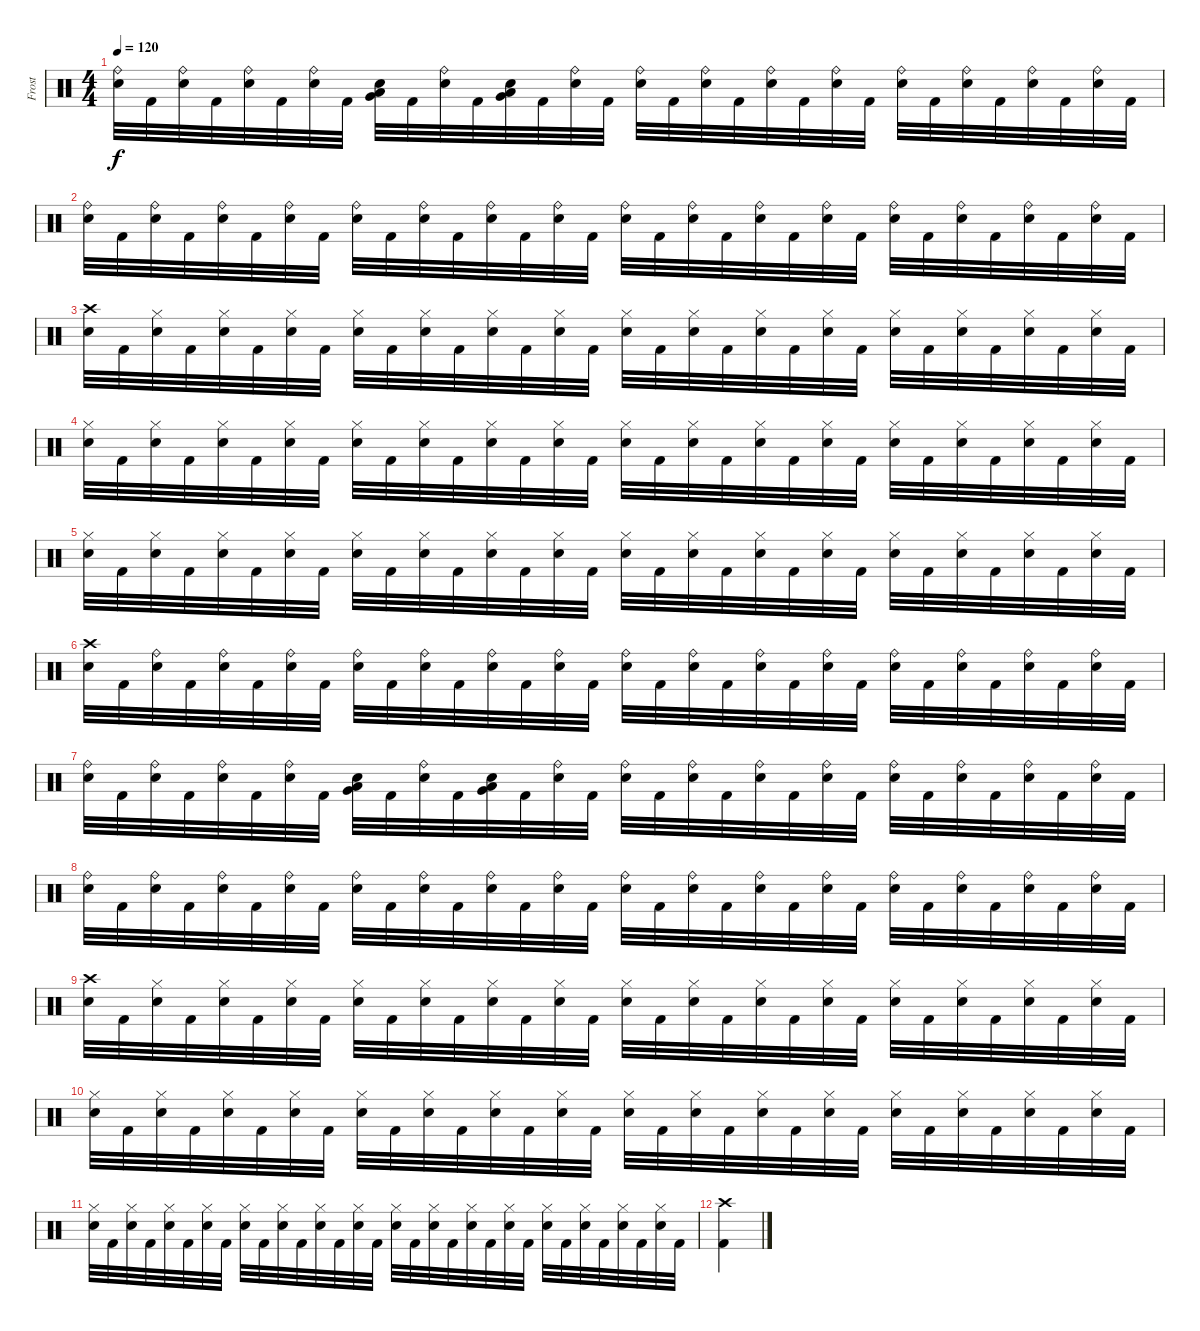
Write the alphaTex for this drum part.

\track ("Frost" "Frost") {instrument percussion}
\staff {score}
\articulation defaults
\ts (4 4)
\tempo 120
\clef neutral
\ks c
("Ride (bell)" "Snare (hit) 2").32{dy f} "Kick (hit) 2".32 ("Ride (bell)" "Snare (hit) 2").32 "Kick (hit) 2".32 ("Ride (bell)" "Snare (hit) 2").32 "Kick (hit) 2".32 ("Ride (bell)" "Snare (hit) 2").32 "Kick (hit) 2".32 ("Low Tom (hit)" "Very Low Tom (hit)" "Snare (hit) 2").32 "Kick (hit) 2".32 ("Ride (bell)" "Snare (hit) 2").32 "Kick (hit) 2".32 ("Low Tom (hit)" "Very Low Tom (hit)" "Snare (hit) 2").32 "Kick (hit) 2".32 ("Ride (bell)" "Snare (hit) 2").32 "Kick (hit) 2".32 ("Ride (bell)" "Snare (hit) 2").32 "Kick (hit) 2".32 ("Ride (bell)" "Snare (hit) 2").32 "Kick (hit) 2".32 ("Ride (bell)" "Snare (hit) 2").32 "Kick (hit) 2".32 ("Ride (bell)" "Snare (hit) 2").32 "Kick (hit) 2".32 ("Ride (bell)" "Snare (hit) 2").32 "Kick (hit) 2".32 ("Ride (bell)" "Snare (hit) 2").32 "Kick (hit) 2".32 ("Ride (bell)" "Snare (hit) 2").32 "Kick (hit) 2".32 ("Ride (bell)" "Snare (hit) 2").32 "Kick (hit) 2".32 |
("Ride (bell)" "Snare (hit) 2").32 "Kick (hit) 2".32 ("Ride (bell)" "Snare (hit) 2").32 "Kick (hit) 2".32 ("Ride (bell)" "Snare (hit) 2").32 "Kick (hit) 2".32 ("Ride (bell)" "Snare (hit) 2").32 "Kick (hit) 2".32 ("Ride (bell)" "Snare (hit) 2").32 "Kick (hit) 2".32 ("Ride (bell)" "Snare (hit) 2").32 "Kick (hit) 2".32 ("Ride (bell)" "Snare (hit) 2").32 "Kick (hit) 2".32 ("Ride (bell)" "Snare (hit) 2").32 "Kick (hit) 2".32 ("Ride (bell)" "Snare (hit) 2").32 "Kick (hit) 2".32 ("Ride (bell)" "Snare (hit) 2").32 "Kick (hit) 2".32 ("Ride (bell)" "Snare (hit) 2").32 "Kick (hit) 2".32 ("Ride (bell)" "Snare (hit) 2").32 "Kick (hit) 2".32 ("Ride (bell)" "Snare (hit) 2").32 "Kick (hit) 2".32 ("Ride (bell)" "Snare (hit) 2").32 "Kick (hit) 2".32 ("Ride (bell)" "Snare (hit) 2").32 "Kick (hit) 2".32 ("Ride (bell)" "Snare (hit) 2").32 "Kick (hit) 2".32 |
("Crash high (hit)" "Snare (hit) 2").32 "Kick (hit) 2".32 ("Hi-Hat (closed)" "Snare (hit) 2").32 "Kick (hit) 2".32 ("Hi-Hat (closed)" "Snare (hit) 2").32 "Kick (hit) 2".32 ("Hi-Hat (closed)" "Snare (hit) 2").32 "Kick (hit) 2".32 ("Hi-Hat (closed)" "Snare (hit) 2").32 "Kick (hit) 2".32 ("Hi-Hat (closed)" "Snare (hit) 2").32 "Kick (hit) 2".32 ("Hi-Hat (closed)" "Snare (hit) 2").32 "Kick (hit) 2".32 ("Hi-Hat (closed)" "Snare (hit) 2").32 "Kick (hit) 2".32 ("Hi-Hat (closed)" "Snare (hit) 2").32 "Kick (hit) 2".32 ("Hi-Hat (closed)" "Snare (hit) 2").32 "Kick (hit) 2".32 ("Hi-Hat (closed)" "Snare (hit) 2").32 "Kick (hit) 2".32 ("Hi-Hat (closed)" "Snare (hit) 2").32 "Kick (hit) 2".32 ("Hi-Hat (closed)" "Snare (hit) 2").32 "Kick (hit) 2".32 ("Hi-Hat (closed)" "Snare (hit) 2").32 "Kick (hit) 2".32 ("Hi-Hat (closed)" "Snare (hit) 2").32 "Kick (hit) 2".32 ("Hi-Hat (closed)" "Snare (hit) 2").32 "Kick (hit) 2".32 |
("Hi-Hat (closed)" "Snare (hit) 2").32 "Kick (hit) 2".32 ("Hi-Hat (closed)" "Snare (hit) 2").32 "Kick (hit) 2".32 ("Hi-Hat (closed)" "Snare (hit) 2").32 "Kick (hit) 2".32 ("Hi-Hat (closed)" "Snare (hit) 2").32 "Kick (hit) 2".32 ("Hi-Hat (closed)" "Snare (hit) 2").32 "Kick (hit) 2".32 ("Hi-Hat (closed)" "Snare (hit) 2").32 "Kick (hit) 2".32 ("Hi-Hat (closed)" "Snare (hit) 2").32 "Kick (hit) 2".32 ("Hi-Hat (closed)" "Snare (hit) 2").32 "Kick (hit) 2".32 ("Hi-Hat (closed)" "Snare (hit) 2").32 "Kick (hit) 2".32 ("Hi-Hat (closed)" "Snare (hit) 2").32 "Kick (hit) 2".32 ("Hi-Hat (closed)" "Snare (hit) 2").32 "Kick (hit) 2".32 ("Hi-Hat (closed)" "Snare (hit) 2").32 "Kick (hit) 2".32 ("Hi-Hat (closed)" "Snare (hit) 2").32 "Kick (hit) 2".32 ("Hi-Hat (closed)" "Snare (hit) 2").32 "Kick (hit) 2".32 ("Hi-Hat (closed)" "Snare (hit) 2").32 "Kick (hit) 2".32 ("Hi-Hat (closed)" "Snare (hit) 2").32 "Kick (hit) 2".32 |
("Hi-Hat (closed)" "Snare (hit) 2").32 "Kick (hit) 2".32 ("Hi-Hat (closed)" "Snare (hit) 2").32 "Kick (hit) 2".32 ("Hi-Hat (closed)" "Snare (hit) 2").32 "Kick (hit) 2".32 ("Hi-Hat (closed)" "Snare (hit) 2").32 "Kick (hit) 2".32 ("Hi-Hat (closed)" "Snare (hit) 2").32 "Kick (hit) 2".32 ("Hi-Hat (closed)" "Snare (hit) 2").32 "Kick (hit) 2".32 ("Hi-Hat (closed)" "Snare (hit) 2").32 "Kick (hit) 2".32 ("Hi-Hat (closed)" "Snare (hit) 2").32 "Kick (hit) 2".32 ("Hi-Hat (closed)" "Snare (hit) 2").32 "Kick (hit) 2".32 ("Hi-Hat (closed)" "Snare (hit) 2").32 "Kick (hit) 2".32 ("Hi-Hat (closed)" "Snare (hit) 2").32 "Kick (hit) 2".32 ("Hi-Hat (closed)" "Snare (hit) 2").32 "Kick (hit) 2".32 ("Hi-Hat (closed)" "Snare (hit) 2").32 "Kick (hit) 2".32 ("Hi-Hat (closed)" "Snare (hit) 2").32 "Kick (hit) 2".32 ("Hi-Hat (closed)" "Snare (hit) 2").32 "Kick (hit) 2".32 ("Hi-Hat (closed)" "Snare (hit) 2").32 "Kick (hit) 2".32 |
("Crash high (hit)" "Snare (hit) 2").32 "Kick (hit) 2".32 ("Ride (bell)" "Snare (hit) 2").32 "Kick (hit) 2".32 ("Ride (bell)" "Snare (hit) 2").32 "Kick (hit) 2".32 ("Ride (bell)" "Snare (hit) 2").32 "Kick (hit) 2".32 ("Ride (bell)" "Snare (hit) 2").32 "Kick (hit) 2".32 ("Ride (bell)" "Snare (hit) 2").32 "Kick (hit) 2".32 ("Ride (bell)" "Snare (hit) 2").32 "Kick (hit) 2".32 ("Ride (bell)" "Snare (hit) 2").32 "Kick (hit) 2".32 ("Ride (bell)" "Snare (hit) 2").32 "Kick (hit) 2".32 ("Ride (bell)" "Snare (hit) 2").32 "Kick (hit) 2".32 ("Ride (bell)" "Snare (hit) 2").32 "Kick (hit) 2".32 ("Ride (bell)" "Snare (hit) 2").32 "Kick (hit) 2".32 ("Ride (bell)" "Snare (hit) 2").32 "Kick (hit) 2".32 ("Ride (bell)" "Snare (hit) 2").32 "Kick (hit) 2".32 ("Ride (bell)" "Snare (hit) 2").32 "Kick (hit) 2".32 ("Ride (bell)" "Snare (hit) 2").32 "Kick (hit) 2".32 |
("Ride (bell)" "Snare (hit) 2").32 "Kick (hit) 2".32 ("Ride (bell)" "Snare (hit) 2").32 "Kick (hit) 2".32 ("Ride (bell)" "Snare (hit) 2").32 "Kick (hit) 2".32 ("Ride (bell)" "Snare (hit) 2").32 "Kick (hit) 2".32 ("Low Tom (hit)" "Very Low Tom (hit)" "Snare (hit) 2").32 "Kick (hit) 2".32 ("Ride (bell)" "Snare (hit) 2").32 "Kick (hit) 2".32 ("Low Tom (hit)" "Very Low Tom (hit)" "Snare (hit) 2").32 "Kick (hit) 2".32 ("Ride (bell)" "Snare (hit) 2").32 "Kick (hit) 2".32 ("Ride (bell)" "Snare (hit) 2").32 "Kick (hit) 2".32 ("Ride (bell)" "Snare (hit) 2").32 "Kick (hit) 2".32 ("Ride (bell)" "Snare (hit) 2").32 "Kick (hit) 2".32 ("Ride (bell)" "Snare (hit) 2").32 "Kick (hit) 2".32 ("Ride (bell)" "Snare (hit) 2").32 "Kick (hit) 2".32 ("Ride (bell)" "Snare (hit) 2").32 "Kick (hit) 2".32 ("Ride (bell)" "Snare (hit) 2").32 "Kick (hit) 2".32 ("Ride (bell)" "Snare (hit) 2").32 "Kick (hit) 2".32 |
("Ride (bell)" "Snare (hit) 2").32 "Kick (hit) 2".32 ("Ride (bell)" "Snare (hit) 2").32 "Kick (hit) 2".32 ("Ride (bell)" "Snare (hit) 2").32 "Kick (hit) 2".32 ("Ride (bell)" "Snare (hit) 2").32 "Kick (hit) 2".32 ("Ride (bell)" "Snare (hit) 2").32 "Kick (hit) 2".32 ("Ride (bell)" "Snare (hit) 2").32 "Kick (hit) 2".32 ("Ride (bell)" "Snare (hit) 2").32 "Kick (hit) 2".32 ("Ride (bell)" "Snare (hit) 2").32 "Kick (hit) 2".32 ("Ride (bell)" "Snare (hit) 2").32 "Kick (hit) 2".32 ("Ride (bell)" "Snare (hit) 2").32 "Kick (hit) 2".32 ("Ride (bell)" "Snare (hit) 2").32 "Kick (hit) 2".32 ("Ride (bell)" "Snare (hit) 2").32 "Kick (hit) 2".32 ("Ride (bell)" "Snare (hit) 2").32 "Kick (hit) 2".32 ("Ride (bell)" "Snare (hit) 2").32 "Kick (hit) 2".32 ("Ride (bell)" "Snare (hit) 2").32 "Kick (hit) 2".32 ("Ride (bell)" "Snare (hit) 2").32 "Kick (hit) 2".32 |
("Crash high (hit)" "Snare (hit) 2").32 "Kick (hit) 2".32 ("Hi-Hat (closed)" "Snare (hit) 2").32 "Kick (hit) 2".32 ("Hi-Hat (closed)" "Snare (hit) 2").32 "Kick (hit) 2".32 ("Hi-Hat (closed)" "Snare (hit) 2").32 "Kick (hit) 2".32 ("Hi-Hat (closed)" "Snare (hit) 2").32 "Kick (hit) 2".32 ("Hi-Hat (closed)" "Snare (hit) 2").32 "Kick (hit) 2".32 ("Hi-Hat (closed)" "Snare (hit) 2").32 "Kick (hit) 2".32 ("Hi-Hat (closed)" "Snare (hit) 2").32 "Kick (hit) 2".32 ("Hi-Hat (closed)" "Snare (hit) 2").32 "Kick (hit) 2".32 ("Hi-Hat (closed)" "Snare (hit) 2").32 "Kick (hit) 2".32 ("Hi-Hat (closed)" "Snare (hit) 2").32 "Kick (hit) 2".32 ("Hi-Hat (closed)" "Snare (hit) 2").32 "Kick (hit) 2".32 ("Hi-Hat (closed)" "Snare (hit) 2").32 "Kick (hit) 2".32 ("Hi-Hat (closed)" "Snare (hit) 2").32 "Kick (hit) 2".32 ("Hi-Hat (closed)" "Snare (hit) 2").32 "Kick (hit) 2".32 ("Hi-Hat (closed)" "Snare (hit) 2").32 "Kick (hit) 2".32 |
("Hi-Hat (closed)" "Snare (hit) 2").32 "Kick (hit) 2".32 ("Hi-Hat (closed)" "Snare (hit) 2").32 "Kick (hit) 2".32 ("Hi-Hat (closed)" "Snare (hit) 2").32 "Kick (hit) 2".32 ("Hi-Hat (closed)" "Snare (hit) 2").32 "Kick (hit) 2".32 ("Hi-Hat (closed)" "Snare (hit) 2").32 "Kick (hit) 2".32 ("Hi-Hat (closed)" "Snare (hit) 2").32 "Kick (hit) 2".32 ("Hi-Hat (closed)" "Snare (hit) 2").32 "Kick (hit) 2".32 ("Hi-Hat (closed)" "Snare (hit) 2").32 "Kick (hit) 2".32 ("Hi-Hat (closed)" "Snare (hit) 2").32 "Kick (hit) 2".32 ("Hi-Hat (closed)" "Snare (hit) 2").32 "Kick (hit) 2".32 ("Hi-Hat (closed)" "Snare (hit) 2").32 "Kick (hit) 2".32 ("Hi-Hat (closed)" "Snare (hit) 2").32 "Kick (hit) 2".32 ("Hi-Hat (closed)" "Snare (hit) 2").32 "Kick (hit) 2".32 ("Hi-Hat (closed)" "Snare (hit) 2").32 "Kick (hit) 2".32 ("Hi-Hat (closed)" "Snare (hit) 2").32 "Kick (hit) 2".32 ("Hi-Hat (closed)" "Snare (hit) 2").32 "Kick (hit) 2".32 |
("Hi-Hat (closed)" "Snare (hit) 2").32 "Kick (hit) 2".32 ("Hi-Hat (closed)" "Snare (hit) 2").32 "Kick (hit) 2".32 ("Hi-Hat (closed)" "Snare (hit) 2").32 "Kick (hit) 2".32 ("Hi-Hat (closed)" "Snare (hit) 2").32 "Kick (hit) 2".32 ("Hi-Hat (closed)" "Snare (hit) 2").32 "Kick (hit) 2".32 ("Hi-Hat (closed)" "Snare (hit) 2").32 "Kick (hit) 2".32 ("Hi-Hat (closed)" "Snare (hit) 2").32 "Kick (hit) 2".32 ("Hi-Hat (closed)" "Snare (hit) 2").32 "Kick (hit) 2".32 ("Hi-Hat (closed)" "Snare (hit) 2").32 "Kick (hit) 2".32 ("Hi-Hat (closed)" "Snare (hit) 2").32 "Kick (hit) 2".32 ("Hi-Hat (closed)" "Snare (hit) 2").32 "Kick (hit) 2".32 ("Hi-Hat (closed)" "Snare (hit) 2").32 "Kick (hit) 2".32 ("Hi-Hat (closed)" "Snare (hit) 2").32 "Kick (hit) 2".32 ("Hi-Hat (closed)" "Snare (hit) 2").32 "Kick (hit) 2".32 ("Hi-Hat (closed)" "Snare (hit) 2").32 "Kick (hit) 2".32 ("Hi-Hat (closed)" "Snare (hit) 2").32 "Kick (hit) 2".32 |
("Crash high (hit)" "Kick (hit) 2").4
